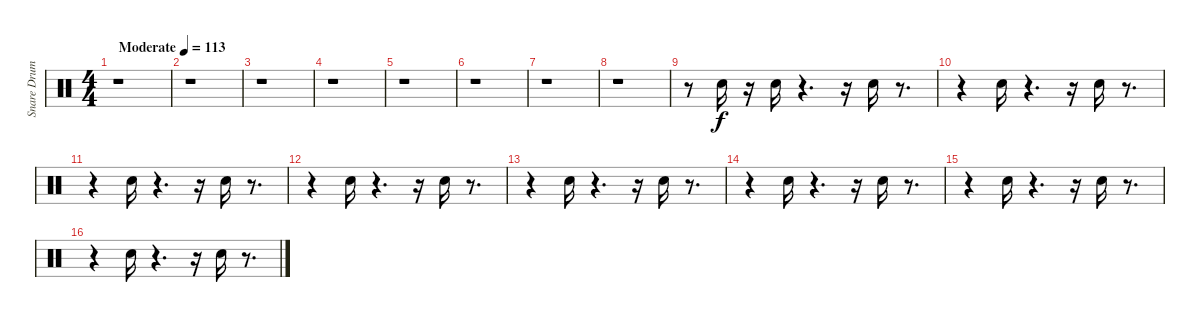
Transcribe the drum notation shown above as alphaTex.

\track ("Snare Drum" "Snare Drum") {instrument percussion}
\staff {score}
\articulation defaults
\ts (4 4)
\tempo (113 "Moderate")
\clef neutral
\ks c
r.1{dy f} |
r.1 |
r.1 |
r.1 |
r.1 |
r.1 |
r.1 |
r.1 |
r.8 "Snare (hit) 2".16 r.16 "Snare (hit) 2".16 r.4{d} r.16 "Snare (hit) 2".16 r.8{d} |
r.4 "Snare (hit) 2".16 r.4{d} r.16 "Snare (hit) 2".16 r.8{d} |
r.4 "Snare (hit) 2".16 r.4{d} r.16 "Snare (hit) 2".16 r.8{d} |
r.4 "Snare (hit) 2".16 r.4{d} r.16 "Snare (hit) 2".16 r.8{d} |
r.4 "Snare (hit) 2".16 r.4{d} r.16 "Snare (hit) 2".16 r.8{d} |
r.4 "Snare (hit) 2".16 r.4{d} r.16 "Snare (hit) 2".16 r.8{d} |
r.4 "Snare (hit) 2".16 r.4{d} r.16 "Snare (hit) 2".16 r.8{d} |
r.4 "Snare (hit) 2".16 r.4{d} r.16 "Snare (hit) 2".16 r.8{d}
